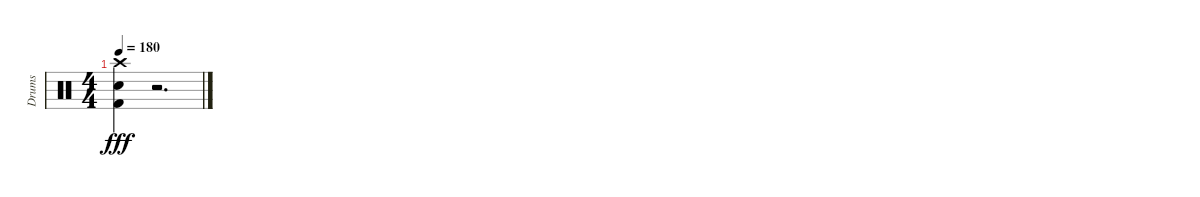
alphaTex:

\track ("Drums" "Drums") {instrument percussion}
\staff {score}
\articulation defaults
\ts (4 4)
\tempo 180
\clef neutral
\ks c
("Crash high (hit)" "Kick (hit) 2" "Snare (hit) 2").4{dy fff} r.2{d}
